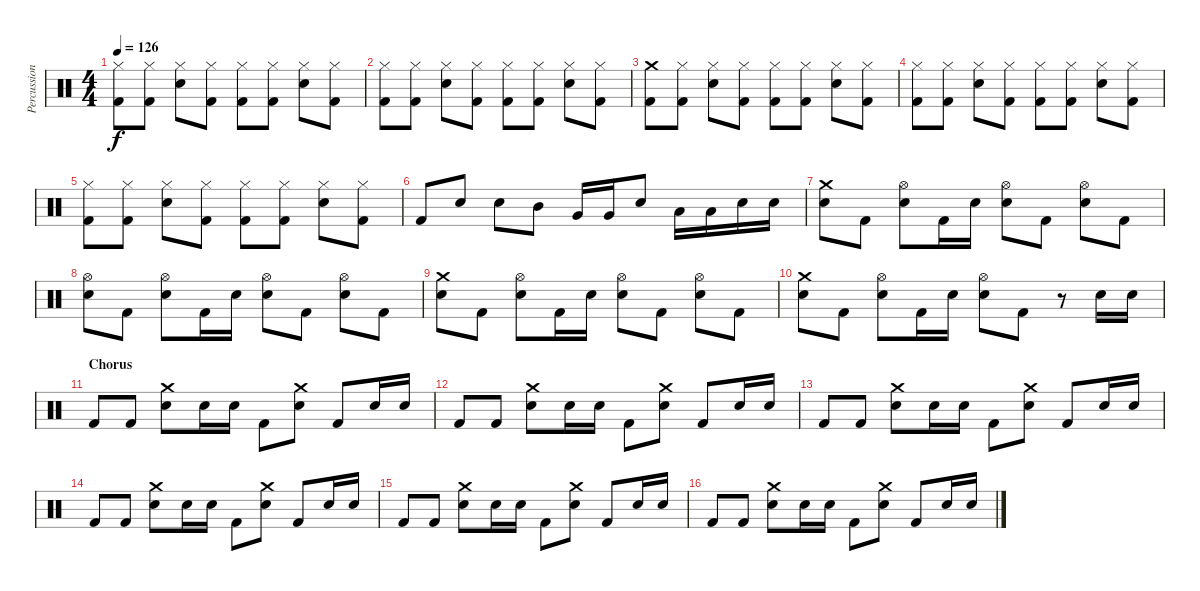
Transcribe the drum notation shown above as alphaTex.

\track ("Percussion" "Percussion") {instrument percussion}
\staff {score}
\articulation defaults
\ts (4 4)
\tempo 126
\clef neutral
\ks c
("Hi-Hat (closed)" "Kick (hit) 2").8{dy f} ("Hi-Hat (closed)" "Kick (hit) 2").8 ("Hi-Hat (closed)" "Electric Snare (hit)").8 ("Hi-Hat (closed)" "Kick (hit) 2").8 ("Hi-Hat (closed)" "Kick (hit) 2").8 ("Hi-Hat (closed)" "Kick (hit) 2").8 ("Hi-Hat (closed)" "Electric Snare (hit)").8 ("Hi-Hat (closed)" "Kick (hit) 2").8 |
("Hi-Hat (closed)" "Kick (hit) 2").8 ("Hi-Hat (closed)" "Kick (hit) 2").8 ("Hi-Hat (closed)" "Electric Snare (hit)").8 ("Hi-Hat (closed)" "Kick (hit) 2").8 ("Hi-Hat (closed)" "Kick (hit) 2").8 ("Hi-Hat (closed)" "Kick (hit) 2").8 ("Hi-Hat (closed)" "Electric Snare (hit)").8 ("Hi-Hat (closed)" "Kick (hit) 2").8 |
("Crash medium (hit)" "Kick (hit) 2").8 ("Hi-Hat (closed)" "Kick (hit) 2").8 ("Hi-Hat (closed)" "Electric Snare (hit)").8 ("Hi-Hat (closed)" "Kick (hit) 2").8 ("Hi-Hat (closed)" "Kick (hit) 2").8 ("Hi-Hat (closed)" "Kick (hit) 2").8 ("Hi-Hat (closed)" "Electric Snare (hit)").8 ("Hi-Hat (closed)" "Kick (hit) 2").8 |
("Hi-Hat (closed)" "Kick (hit) 2").8 ("Hi-Hat (closed)" "Kick (hit) 2").8 ("Hi-Hat (closed)" "Electric Snare (hit)").8 ("Hi-Hat (closed)" "Kick (hit) 2").8 ("Hi-Hat (closed)" "Kick (hit) 2").8 ("Hi-Hat (closed)" "Kick (hit) 2").8 ("Hi-Hat (closed)" "Electric Snare (hit)").8 ("Hi-Hat (closed)" "Kick (hit) 2").8 |
("Hi-Hat (closed)" "Kick (hit) 2").8 ("Hi-Hat (closed)" "Kick (hit) 2").8 ("Hi-Hat (closed)" "Electric Snare (hit)").8 ("Hi-Hat (closed)" "Kick (hit) 2").8 ("Hi-Hat (closed)" "Kick (hit) 2").8 ("Hi-Hat (closed)" "Kick (hit) 2").8 ("Hi-Hat (closed)" "Electric Snare (hit)").8 ("Hi-Hat (closed)" "Kick (hit) 2").8 |
"Kick (hit) 2".8 "Electric Snare (hit)".8 "Electric Snare (hit)".8 "Mid Tom (hit)".8 "Very Low Tom (hit)".16 "Very Low Tom (hit)".16 "Electric Snare (hit)".8 "Low Tom (hit)".16 "Low Tom (hit)".16 "Electric Snare (hit)".16 "Electric Snare (hit)".16 |
("Crash medium (hit)" "Electric Snare (hit)").8 "Kick (hit) 2".8 ("Hi-Hat (open)" "Electric Snare (hit)").8 "Kick (hit) 2".16 "Electric Snare (hit)".16 ("Hi-Hat (open)" "Electric Snare (hit)").8 "Kick (hit) 2".8 ("Hi-Hat (open)" "Electric Snare (hit)").8 "Kick (hit) 2".8 |
("Hi-Hat (open)" "Electric Snare (hit)").8 "Kick (hit) 2".8 ("Hi-Hat (open)" "Electric Snare (hit)").8 "Kick (hit) 2".16 "Electric Snare (hit)".16 ("Hi-Hat (open)" "Electric Snare (hit)").8 "Kick (hit) 2".8 ("Hi-Hat (open)" "Electric Snare (hit)").8 "Kick (hit) 2".8 |
("Crash medium (hit)" "Electric Snare (hit)").8 "Kick (hit) 2".8 ("Hi-Hat (open)" "Electric Snare (hit)").8 "Kick (hit) 2".16 "Electric Snare (hit)".16 ("Hi-Hat (open)" "Electric Snare (hit)").8 "Kick (hit) 2".8 ("Hi-Hat (open)" "Electric Snare (hit)").8 "Kick (hit) 2".8 |
("Crash medium (hit)" "Electric Snare (hit)").8 "Kick (hit) 2".8 ("Hi-Hat (open)" "Electric Snare (hit)").8 "Kick (hit) 2".16 "Electric Snare (hit)".16 ("Hi-Hat (open)" "Electric Snare (hit)").8 "Kick (hit) 2".8 r.8 "Electric Snare (hit)".16 "Electric Snare (hit)".16 |
\section ("" "Chorus")
"Kick (hit) 2".8 "Kick (hit) 2".8 ("Crash medium (hit)" "Electric Snare (hit)").8 "Electric Snare (hit)".16 "Electric Snare (hit)".16 "Kick (hit) 2".8 ("Crash medium (hit)" "Electric Snare (hit)").8 "Kick (hit) 2".8 "Electric Snare (hit)".16 "Electric Snare (hit)".16 |
"Kick (hit) 2".8 "Kick (hit) 2".8 ("Crash medium (hit)" "Electric Snare (hit)").8 "Electric Snare (hit)".16 "Electric Snare (hit)".16 "Kick (hit) 2".8 ("Crash medium (hit)" "Electric Snare (hit)").8 "Kick (hit) 2".8 "Electric Snare (hit)".16 "Electric Snare (hit)".16 |
"Kick (hit) 2".8 "Kick (hit) 2".8 ("Crash medium (hit)" "Electric Snare (hit)").8 "Electric Snare (hit)".16 "Electric Snare (hit)".16 "Kick (hit) 2".8 ("Crash medium (hit)" "Electric Snare (hit)").8 "Kick (hit) 2".8 "Electric Snare (hit)".16 "Electric Snare (hit)".16 |
"Kick (hit) 2".8 "Kick (hit) 2".8 ("Crash medium (hit)" "Electric Snare (hit)").8 "Electric Snare (hit)".16 "Electric Snare (hit)".16 "Kick (hit) 2".8 ("Crash medium (hit)" "Electric Snare (hit)").8 "Kick (hit) 2".8 "Electric Snare (hit)".16 "Electric Snare (hit)".16 |
"Kick (hit) 2".8 "Kick (hit) 2".8 ("Crash medium (hit)" "Electric Snare (hit)").8 "Electric Snare (hit)".16 "Electric Snare (hit)".16 "Kick (hit) 2".8 ("Crash medium (hit)" "Electric Snare (hit)").8 "Kick (hit) 2".8 "Electric Snare (hit)".16 "Electric Snare (hit)".16 |
"Kick (hit) 2".8 "Kick (hit) 2".8 ("Crash medium (hit)" "Electric Snare (hit)").8 "Electric Snare (hit)".16 "Electric Snare (hit)".16 "Kick (hit) 2".8 ("Crash medium (hit)" "Electric Snare (hit)").8 "Kick (hit) 2".8 "Electric Snare (hit)".16 "Electric Snare (hit)".16
